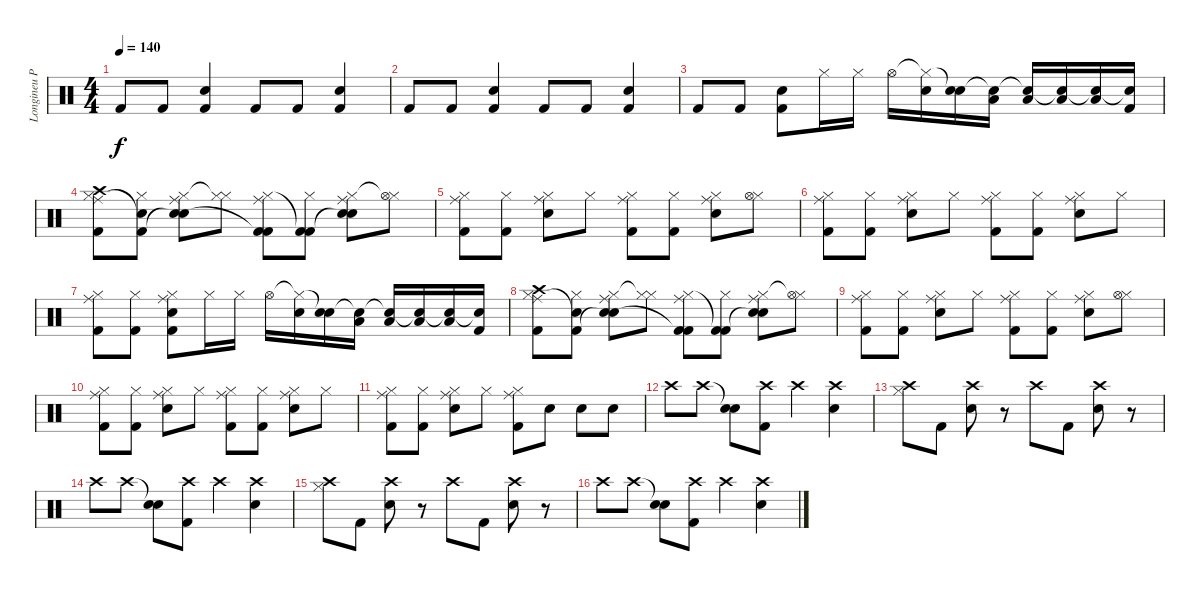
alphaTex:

\track ("Longineu Parsons III Drums" "Longineu P") {instrument percussion}
\staff {score}
\articulation defaults
\ts (4 4)
\tempo 140
\clef neutral
\ks c "Kick (hit) 2".8{dy f} "Kick (hit) 2".8
("Snare (hit) 2" "Kick (hit) 2").4 "Kick (hit) 2".8 "Kick (hit) 2".8 ("Snare (hit) 2" "Kick (hit) 2").4 |
"Kick (hit) 2".8 "Kick (hit) 2".8 ("Snare (hit) 2" "Kick (hit) 2").4 "Kick (hit) 2".8 "Kick (hit) 2".8 ("Snare (hit) 2" "Kick (hit) 2").4 |
"Kick (hit) 2".8 "Kick (hit) 2".8 ("Kick (hit) 2" "Snare (hit) 2").8 "Hi-Hat (closed)".16 "Hi-Hat (closed)".16 "Hi-Hat (open)".16 ("Hi-Hat (closed)"{t} "Snare (hit) 2").16 ("Snare (hit)"{t} "Snare (hit) 2").16 ("Snare (hit)"{t} "Low Tom (hit)").16 ("Snare (hit)"{t} "Low Tom (hit)").16 ("Snare (hit)"{t} "Low Floor Tom (hit)").16 ("Snare (hit)"{t} "Low Floor Tom (hit)").16 ("Snare (hit)"{t} "Kick (hit) 2").16 |
("Ride (middle)" "Hi-Hat (closed)" "Crash high (hit)" "Kick (hit) 2").8 ("Hi-Hat (closed)" "Snare (hit)"{t} "Kick (hit) 2").8 ("Ride (middle)" "Hi-Hat (closed)" "Snare (hit) 2"{t} "Snare (hit) 2").8 ("Hi-Hat (closed)" "Hi-Hat (closed)"{t}).8 ("Ride (middle)" "Hi-Hat (closed)" "Kick (hit) 2"{t} "Kick (hit) 2").8 ("Hi-Hat (closed)" "Kick (hit) 2"{t} "Kick (hit) 2").8 ("Ride (middle)" "Hi-Hat (closed)" "Snare (hit) 2"{t} "Snare (hit) 2").8 ("Hi-Hat (closed)" "Hi-Hat (open)"{t}).8 |
("Ride (middle)" "Hi-Hat (closed)" "Kick (hit) 2").8 ("Hi-Hat (closed)" "Kick (hit) 2").8 ("Ride (middle)" "Hi-Hat (closed)" "Snare (hit) 2").8 "Hi-Hat (closed)".8 ("Ride (middle)" "Hi-Hat (closed)" "Kick (hit) 2").8 ("Hi-Hat (closed)" "Kick (hit) 2").8 ("Ride (middle)" "Hi-Hat (closed)" "Snare (hit) 2").8 ("Hi-Hat (closed)" "Hi-Hat (open)").8 |
("Ride (middle)" "Hi-Hat (closed)" "Kick (hit) 2").8 ("Hi-Hat (closed)" "Kick (hit) 2").8 ("Ride (middle)" "Hi-Hat (closed)" "Snare (hit) 2").8 "Hi-Hat (closed)".8 ("Ride (middle)" "Hi-Hat (closed)" "Kick (hit) 2").8 ("Hi-Hat (closed)" "Kick (hit) 2").8 ("Ride (middle)" "Hi-Hat (closed)" "Snare (hit) 2").8 "Hi-Hat (closed)".8 |
("Ride (middle)" "Hi-Hat (closed)" "Kick (hit) 2").8 ("Hi-Hat (closed)" "Kick (hit) 2").8 ("Ride (middle)" "Hi-Hat (closed)" "Kick (hit) 2" "Snare (hit) 2").8 "Hi-Hat (closed)".16 "Hi-Hat (closed)".16 "Hi-Hat (open)".16 ("Hi-Hat (closed)"{t} "Snare (hit) 2").16 ("Snare (hit)"{t} "Snare (hit) 2").16 ("Snare (hit)"{t} "Low Tom (hit)").16 ("Snare (hit)"{t} "Low Tom (hit)").16 ("Snare (hit)"{t} "Low Floor Tom (hit)").16 ("Snare (hit)"{t} "Low Floor Tom (hit)").16 ("Snare (hit)"{t} "Kick (hit) 2").16 |
("Ride (middle)" "Hi-Hat (closed)" "Crash high (hit)" "Kick (hit) 2").8 ("Hi-Hat (closed)" "Snare (hit)"{t} "Kick (hit) 2").8 ("Ride (middle)" "Hi-Hat (closed)" "Snare (hit) 2"{t} "Snare (hit) 2").8 ("Hi-Hat (closed)" "Hi-Hat (closed)"{t}).8 ("Ride (middle)" "Hi-Hat (closed)" "Kick (hit) 2"{t} "Kick (hit) 2").8 ("Hi-Hat (closed)" "Kick (hit) 2"{t} "Kick (hit) 2").8 ("Ride (middle)" "Hi-Hat (closed)" "Snare (hit) 2"{t} "Snare (hit) 2").8 ("Hi-Hat (closed)" "Hi-Hat (open)"{t}).8 |
("Ride (middle)" "Hi-Hat (closed)" "Kick (hit) 2").8 ("Hi-Hat (closed)" "Kick (hit) 2").8 ("Ride (middle)" "Hi-Hat (closed)" "Snare (hit) 2").8 "Hi-Hat (closed)".8 ("Ride (middle)" "Hi-Hat (closed)" "Kick (hit) 2").8 ("Hi-Hat (closed)" "Kick (hit) 2").8 ("Ride (middle)" "Hi-Hat (closed)" "Snare (hit) 2").8 ("Hi-Hat (closed)" "Hi-Hat (open)").8 |
("Ride (middle)" "Hi-Hat (closed)" "Kick (hit) 2").8 ("Hi-Hat (closed)" "Kick (hit) 2").8 ("Ride (middle)" "Hi-Hat (closed)" "Snare (hit) 2").8 "Hi-Hat (closed)".8 ("Ride (middle)" "Hi-Hat (closed)" "Kick (hit) 2").8 ("Hi-Hat (closed)" "Kick (hit) 2").8 ("Ride (middle)" "Hi-Hat (closed)" "Snare (hit) 2").8 "Hi-Hat (closed)".8 |
("Ride (middle)" "Hi-Hat (closed)" "Kick (hit) 2").8 ("Hi-Hat (closed)" "Kick (hit) 2").8 ("Ride (middle)" "Hi-Hat (closed)" "Snare (hit) 2").8 "Hi-Hat (closed)".8 ("Ride (middle)" "Hi-Hat (closed)" "Kick (hit) 2").8 "Snare (hit) 2".8 "Snare (hit) 2".8 "Snare (hit) 2".8 |
"Crash high (hit)".8 "Crash high (hit)".8 ("Snare (hit)"{t} "Snare (hit) 2").8 ("Crash high (hit)" "Kick (hit) 2").8 "Crash high (hit)".4 ("Crash high (hit)" "Snare (hit) 2").4 |
("Hi-Hat (closed)" "Crash high (hit)").8 "Kick (hit) 2".8 ("Crash high (hit)" "Snare (hit) 2").8 r.8 "Crash high (hit)".8 "Kick (hit) 2".8 ("Crash high (hit)" "Snare (hit) 2").8 r.8 |
"Crash high (hit)".8 "Crash high (hit)".8 ("Snare (hit)"{t} "Snare (hit) 2").8 ("Crash high (hit)" "Kick (hit) 2").8 "Crash high (hit)".4 ("Crash high (hit)" "Snare (hit) 2").4 |
("Hi-Hat (closed)" "Crash high (hit)").8 "Kick (hit) 2".8 ("Crash high (hit)" "Snare (hit) 2").8 r.8 "Crash high (hit)".8 "Kick (hit) 2".8 ("Crash high (hit)" "Snare (hit) 2").8 r.8 |
"Crash high (hit)".8 "Crash high (hit)".8 ("Snare (hit)"{t} "Snare (hit) 2").8 ("Crash high (hit)" "Kick (hit) 2").8 "Crash high (hit)".4 ("Crash high (hit)" "Snare (hit) 2").4
